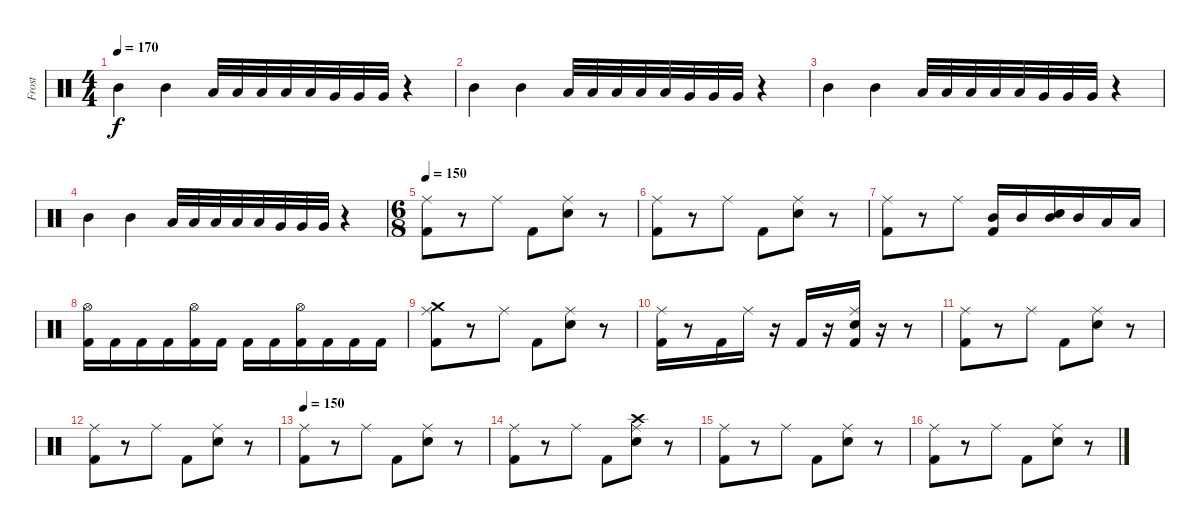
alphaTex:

\track ("Frost" "Frost") {instrument percussion}
\staff {score}
\articulation defaults
\ts (4 4)
\tempo 170
\clef neutral
\ks c "Mid Tom (hit)".4{dy f} "Mid Tom (hit)".4 "Low Tom (hit)".32 "Low Tom (hit)".32 "Low Tom (hit)".32 "Low Tom (hit)".32 "Low Tom (hit)".32 "Very Low Tom (hit)".32 "Very Low Tom (hit)".32 "Very Low Tom (hit)".32
r.4 |
"Mid Tom (hit)".4 "Mid Tom (hit)".4 "Low Tom (hit)".32 "Low Tom (hit)".32 "Low Tom (hit)".32 "Low Tom (hit)".32 "Low Tom (hit)".32 "Very Low Tom (hit)".32 "Very Low Tom (hit)".32 "Very Low Tom (hit)".32 r.4 |
"Mid Tom (hit)".4 "Mid Tom (hit)".4 "Low Tom (hit)".32 "Low Tom (hit)".32 "Low Tom (hit)".32 "Low Tom (hit)".32 "Low Tom (hit)".32 "Very Low Tom (hit)".32 "Very Low Tom (hit)".32 "Very Low Tom (hit)".32 r.4 |
"Mid Tom (hit)".4 "Mid Tom (hit)".4 "Low Tom (hit)".32 "Low Tom (hit)".32 "Low Tom (hit)".32 "Low Tom (hit)".32 "Low Tom (hit)".32 "Very Low Tom (hit)".32 "Very Low Tom (hit)".32 "Very Low Tom (hit)".32 r.4 |
\ts (6 8)
\tempo 150
("Kick (hit) 2" "Ride (middle)").8 r.8 "Ride (middle)".8 "Kick (hit) 2".8 ("Snare (hit) 2" "Ride (middle)").8 r.8 |
("Kick (hit) 2" "Ride (middle)").8 r.8 "Ride (middle)".8 "Kick (hit) 2".8 ("Snare (hit) 2" "Ride (middle)").8 r.8 |
("Kick (hit) 2" "Ride (middle)").8 r.8 "Ride (middle)".8 ("Kick (hit) 2" "Mid Tom (hit)").16 "Mid Tom (hit)".16 ("Mid Tom (hit)" "Snare (hit) 2").16 "Mid Tom (hit)".16 "Low Tom (hit)".16 "Low Tom (hit)".16 |
("Kick (hit) 2" "Hi-Hat (open)").16 "Kick (hit) 2".16 "Kick (hit) 2".16 "Kick (hit) 2".16 ("Kick (hit) 2" "Hi-Hat (open)").16 "Kick (hit) 2".16 "Kick (hit) 2".16 "Kick (hit) 2".16 ("Kick (hit) 2" "Hi-Hat (open)").16 "Kick (hit) 2".16 "Kick (hit) 2".16 "Kick (hit) 2".16 |
("Kick (hit) 2" "Crash medium (hit)" "Ride (middle)").8 r.8 "Ride (middle)".8 "Kick (hit) 2".8 ("Snare (hit) 2" "Ride (middle)").8 r.8 |
("Kick (hit) 2" "Ride (middle)").16 r.8 "Kick (hit) 2".16 "Ride (middle)".16 r.16 "Kick (hit) 2".16 r.16 ("Kick (hit) 2" "Snare (hit) 2" "Ride (middle)").16 r.16 r.8 |
("Kick (hit) 2" "Ride (middle)").8 r.8 "Ride (middle)".8 "Kick (hit) 2".8 ("Snare (hit) 2" "Ride (middle)").8 r.8 |
("Kick (hit) 2" "Ride (middle)").8 r.8 "Ride (middle)".8 "Kick (hit) 2".8 ("Snare (hit) 2" "Ride (middle)").8 r.8 |
\tempo 150
("Kick (hit) 2" "Ride (middle)").8 r.8 "Ride (middle)".8 "Kick (hit) 2".8 ("Snare (hit) 2" "Ride (middle)").8 r.8 |
("Kick (hit) 2" "Ride (middle)").8 r.8 "Ride (middle)".8 "Kick (hit) 2".8 ("Crash high (hit)" "Snare (hit) 2" "Ride (middle)").8 r.8 |
("Kick (hit) 2" "Ride (middle)").8 r.8 "Ride (middle)".8 "Kick (hit) 2".8 ("Snare (hit) 2" "Ride (middle)").8 r.8 |
("Kick (hit) 2" "Ride (middle)").8 r.8 "Ride (middle)".8 "Kick (hit) 2".8 ("Snare (hit) 2" "Ride (middle)").8 r.8
